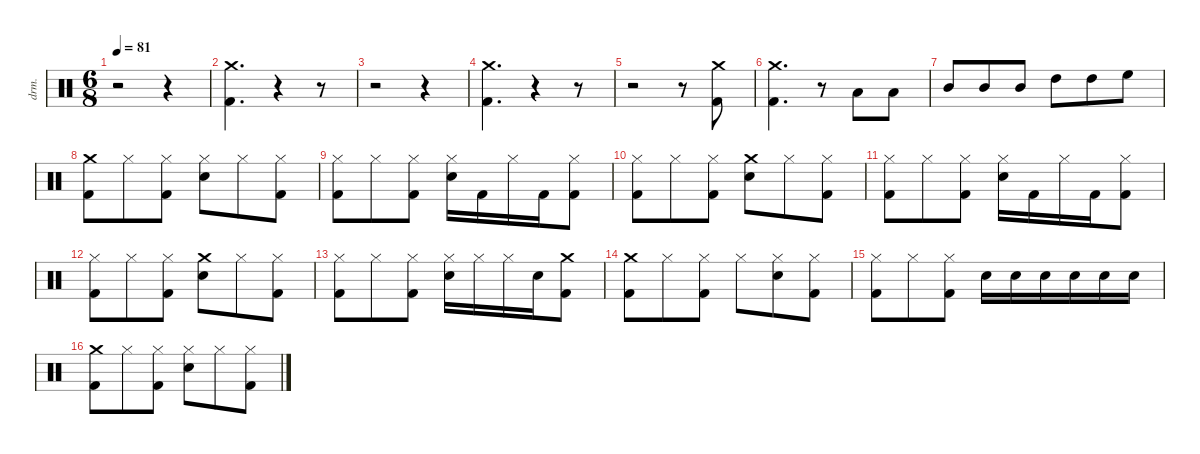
\defaultSystemsLayout 4
\hideDynamics
\bracketExtendMode nobrackets
\otherSystemsTrackNameOrientation horizontal
\track ("Lars Ulrich (Drums)" "drm.") {instrument percussion}
\staff {score}
\articulation defaults
\ts (6 8)
\tempo 81
\clef neutral
\ks c
r.2{dy f beam Down} r.4{beam Down} |
("Kick (hit) 2" "Crash medium (hit)").4{d beam Down} r.4{beam Down} r.8{beam Down} |
r.2{beam Down} r.4{beam Down} |
("Crash medium (hit)" "Kick (hit) 2").4{d beam Down} r.4{beam Down} r.8{beam Down} |
r.2{beam Down} r.8{beam Down} ("Kick (hit) 2" "Crash medium (hit)").8{beam Down} |
("Kick (hit) 2" "Crash medium (hit)").4{d beam Down} r.8{beam Down} "Low Tom (hit)".8{beam Up} "Low Tom (hit)".8{beam Up} |
"Mid Tom (hit)".8{beam Up} "Mid Tom (hit)".8{beam Up} "Mid Tom (hit)".8{beam Up} "High Tom (hit)".8{beam Down} "High Tom (hit)".8{beam Down} "High Floor Tom (hit)".8{beam Down} |
("Kick (hit) 2" "Crash medium (hit)").8{beam Down} "Hi-Hat (closed)".8{beam Down} ("Kick (hit) 2" "Hi-Hat (closed)").8{beam Down} ("Hi-Hat (closed)" "Snare (hit) 2").8{beam Down} "Hi-Hat (closed)".8{beam Down} ("Kick (hit) 2" "Hi-Hat (closed)").8{beam Down} |
("Hi-Hat (closed)" "Kick (hit) 2").8{beam Down} "Hi-Hat (closed)".8{beam Down} ("Kick (hit) 2" "Hi-Hat (closed)").8{beam Down} ("Hi-Hat (closed)" "Snare (hit) 2").16{beam Down} "Kick (hit) 2".16{beam Down} "Hi-Hat (closed)".16{beam Down} "Kick (hit) 2".16{beam Down} ("Kick (hit) 2" "Hi-Hat (closed)").8{beam Down} |
("Hi-Hat (closed)" "Kick (hit) 2").8{beam Down} "Hi-Hat (closed)".8{beam Down} ("Hi-Hat (closed)" "Kick (hit) 2").8{beam Down} ("Crash medium (hit)" "Snare (hit) 2").8{beam Down} "Hi-Hat (closed)".8{beam Down} ("Kick (hit) 2" "Hi-Hat (closed)").8{beam Down} |
("Hi-Hat (closed)" "Kick (hit) 2").8{beam Down} "Hi-Hat (closed)".8{beam Down} ("Kick (hit) 2" "Hi-Hat (closed)").8{beam Down} ("Hi-Hat (closed)" "Snare (hit) 2").16{beam Down} "Kick (hit) 2".16{beam Down} "Hi-Hat (closed)".16{beam Down} "Kick (hit) 2".16{beam Down} ("Kick (hit) 2" "Hi-Hat (closed)").8{beam Down} |
("Hi-Hat (closed)" "Kick (hit) 2").8{beam Down} "Hi-Hat (closed)".8{beam Down} ("Hi-Hat (closed)" "Kick (hit) 2").8{beam Down} ("Crash medium (hit)" "Snare (hit) 2").8{beam Down} "Hi-Hat (closed)".8{beam Down} ("Kick (hit) 2" "Hi-Hat (closed)").8{beam Down} |
("Kick (hit) 2" "Hi-Hat (closed)").8{beam Down} "Hi-Hat (closed)".8{beam Down} ("Kick (hit) 2" "Hi-Hat (closed)").8{beam Down} ("Hi-Hat (closed)" "Snare (hit) 2").16{beam Down} "Hi-Hat (closed)".16{beam Down} "Hi-Hat (closed)".16{beam Down} "Snare (hit) 2".16{beam Down} ("Crash medium (hit)" "Kick (hit) 2").8{beam Down} |
("Kick (hit) 2" "Crash medium (hit)").8{beam Down} "Hi-Hat (closed)".8{beam Down} ("Kick (hit) 2" "Hi-Hat (closed)").8{beam Down} "Hi-Hat (closed)".8{beam Down} ("Snare (hit) 2" "Hi-Hat (closed)").8{beam Down} ("Kick (hit) 2" "Hi-Hat (closed)").8{beam Down} |
("Hi-Hat (closed)" "Kick (hit) 2").8{beam Down} "Hi-Hat (closed)".8{beam Down} ("Hi-Hat (closed)" "Kick (hit) 2").8{beam Down} "Snare (hit) 2".16{beam Down} "Snare (hit) 2".16{beam Down} "Snare (hit) 2".16{beam Down} "Snare (hit) 2".16{beam Down} "Snare (hit) 2".16{beam Down} "Snare (hit) 2".16{beam Down} |
("Crash medium (hit)" "Kick (hit) 2").8{beam Down} "Hi-Hat (closed)".8{beam Down} ("Kick (hit) 2" "Hi-Hat (closed)").8{beam Down} ("Snare (hit) 2" "Hi-Hat (closed)").8{beam Down} "Hi-Hat (closed)".8{beam Down} ("Kick (hit) 2" "Hi-Hat (closed)").8{beam Down}
